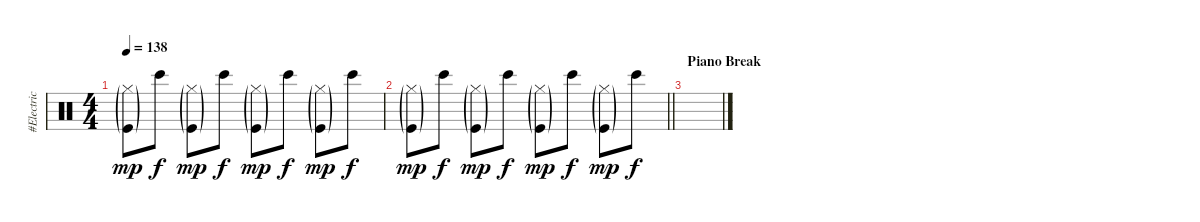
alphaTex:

\track ("#Electric Drums" "#Electric ") {instrument percussion}
\staff {score}
\articulation defaults
\ts (4 4)
\tempo 138
\clef neutral
\ks c
("Kick (hit)"{g} "Hi-Hat (closed)"{g}).8{dy mp} "Bongo High (hit)".8{dy f} ("Kick (hit)"{g} "Hi-Hat (closed)"{g}).8{dy mp} "Bongo High (hit)".8{dy f} ("Kick (hit)"{g} "Hi-Hat (closed)"{g}).8{dy mp} "Bongo High (hit)".8{dy f} ("Kick (hit)"{g} "Hi-Hat (closed)"{g}).8{dy mp} "Bongo High (hit)".8{dy f} |
\barLineRight lightlight
("Kick (hit)"{g} "Hi-Hat (closed)"{g}).8{dy mp} "Bongo High (hit)".8{dy f} ("Kick (hit)"{g} "Hi-Hat (closed)"{g}).8{dy mp} "Bongo High (hit)".8{dy f} ("Kick (hit)"{g} "Hi-Hat (closed)"{g}).8{dy mp} "Bongo High (hit)".8{dy f} ("Kick (hit)"{g} "Hi-Hat (closed)"{g}).8{dy mp} "Bongo High (hit)".8{dy f} |
\section ("" "Piano Break")
